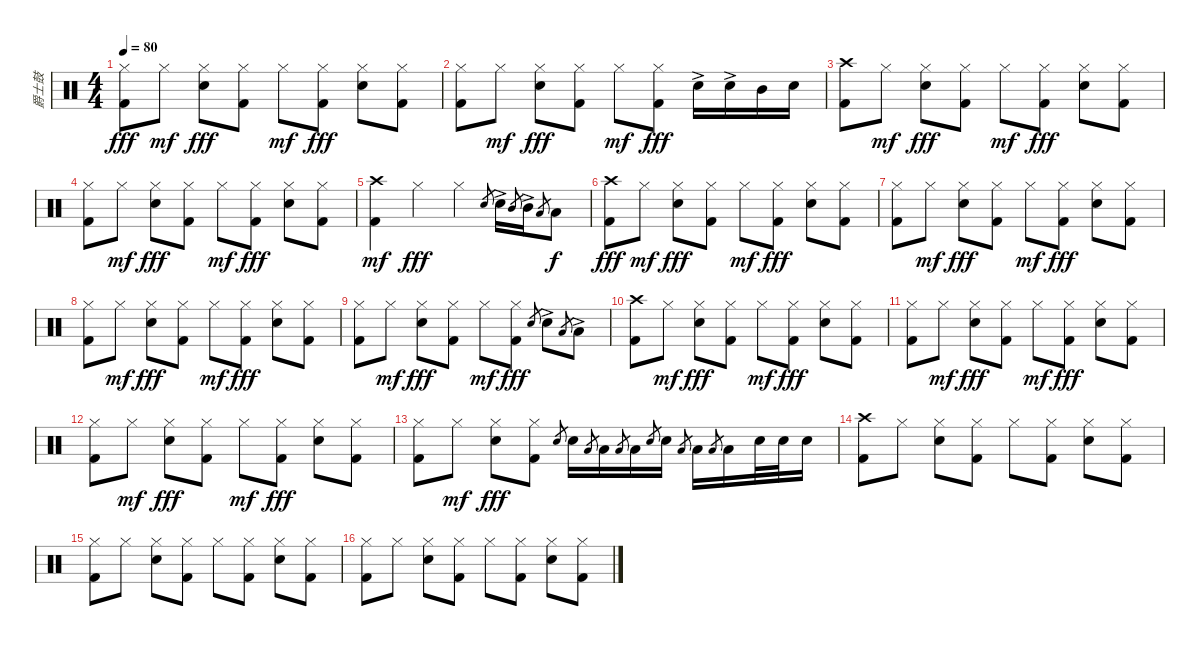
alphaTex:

\track ("爵士鼓" "爵士鼓") {instrument percussion}
\staff {score}
\articulation defaults
\ts (4 4)
\tempo 80
\clef neutral
\ks c
("Hi-Hat (closed)" "Kick (hit) 2").8{dy fff} "Hi-Hat (closed)".8{dy mf} ("Hi-Hat (closed)" "Electric Snare (hit)").8{dy fff} ("Hi-Hat (closed)" "Kick (hit) 2").8 "Hi-Hat (closed)".8{dy mf} ("Hi-Hat (closed)" "Kick (hit) 2").8{dy fff} ("Hi-Hat (closed)" "Electric Snare (hit)").8 ("Hi-Hat (closed)" "Kick (hit) 2").8 |
("Hi-Hat (closed)" "Kick (hit) 2").8 "Hi-Hat (closed)".8{dy mf} ("Hi-Hat (closed)" "Electric Snare (hit)").8{dy fff} ("Hi-Hat (closed)" "Kick (hit) 2").8 "Hi-Hat (closed)".8{dy mf} ("Hi-Hat (closed)" "Kick (hit) 2").8{dy fff} "Electric Snare (hit)"{ac}.16 "Electric Snare (hit)"{ac}.16 "Mid Tom (hit)".16 "Electric Snare (hit)".16 |
("Crash high (hit)" "Kick (hit) 2").8 "Hi-Hat (closed)".8{dy mf} ("Hi-Hat (closed)" "Electric Snare (hit)").8{dy fff} ("Hi-Hat (closed)" "Kick (hit) 2").8 "Hi-Hat (closed)".8{dy mf} ("Hi-Hat (closed)" "Kick (hit) 2").8{dy fff} ("Hi-Hat (closed)" "Electric Snare (hit)").8 ("Hi-Hat (closed)" "Kick (hit) 2").8 |
("Hi-Hat (closed)" "Kick (hit) 2").8 "Hi-Hat (closed)".8{dy mf} ("Hi-Hat (closed)" "Electric Snare (hit)").8{dy fff} ("Hi-Hat (closed)" "Kick (hit) 2").8 "Hi-Hat (closed)".8{dy mf} ("Hi-Hat (closed)" "Kick (hit) 2").8{dy fff} ("Hi-Hat (closed)" "Electric Snare (hit)").8 ("Hi-Hat (closed)" "Kick (hit) 2").8 |
("Crash high (hit)" "Kick (hit) 2").4{dy mf} "Hi-Hat (closed)".4{dy fff} "Hi-Hat (closed)".4 "Electric Snare (hit)".8{gr} "Electric Snare (hit)"{ac}.16 "Mid Tom (hit)".8{gr} "Mid Tom (hit)"{ac}.16 "Low Tom (hit)".8{gr} "Low Tom (hit)".8{dy f} |
("Crash high (hit)" "Kick (hit) 2").8{dy fff} "Hi-Hat (closed)".8{dy mf} ("Hi-Hat (closed)" "Electric Snare (hit)").8{dy fff} ("Hi-Hat (closed)" "Kick (hit) 2").8 "Hi-Hat (closed)".8{dy mf} ("Hi-Hat (closed)" "Kick (hit) 2").8{dy fff} ("Hi-Hat (closed)" "Electric Snare (hit)").8 ("Hi-Hat (closed)" "Kick (hit) 2").8 |
("Hi-Hat (closed)" "Kick (hit) 2").8 "Hi-Hat (closed)".8{dy mf} ("Hi-Hat (closed)" "Electric Snare (hit)").8{dy fff} ("Hi-Hat (closed)" "Kick (hit) 2").8 "Hi-Hat (closed)".8{dy mf} ("Hi-Hat (closed)" "Kick (hit) 2").8{dy fff} ("Hi-Hat (closed)" "Electric Snare (hit)").8 ("Hi-Hat (closed)" "Kick (hit) 2").8 |
("Hi-Hat (closed)" "Kick (hit) 2").8 "Hi-Hat (closed)".8{dy mf} ("Hi-Hat (closed)" "Electric Snare (hit)").8{dy fff} ("Hi-Hat (closed)" "Kick (hit) 2").8 "Hi-Hat (closed)".8{dy mf} ("Hi-Hat (closed)" "Kick (hit) 2").8{dy fff} ("Hi-Hat (closed)" "Electric Snare (hit)").8 ("Hi-Hat (closed)" "Kick (hit) 2").8 |
("Hi-Hat (closed)" "Kick (hit) 2").8 "Hi-Hat (closed)".8{dy mf} ("Hi-Hat (closed)" "Electric Snare (hit)").8{dy fff} ("Hi-Hat (closed)" "Kick (hit) 2").8 "Hi-Hat (closed)".8{dy mf} ("Hi-Hat (closed)" "Kick (hit) 2").8{dy fff} "Electric Snare (hit)".8{gr} "Electric Snare (hit)"{ac}.8 "Low Tom (hit)".8{gr} "Low Tom (hit)"{ac}.8 |
("Crash high (hit)" "Kick (hit) 2").8 "Hi-Hat (closed)".8{dy mf} ("Hi-Hat (closed)" "Electric Snare (hit)").8{dy fff} ("Hi-Hat (closed)" "Kick (hit) 2").8 "Hi-Hat (closed)".8{dy mf} ("Hi-Hat (closed)" "Kick (hit) 2").8{dy fff} ("Hi-Hat (closed)" "Electric Snare (hit)").8 ("Hi-Hat (closed)" "Kick (hit) 2").8 |
("Hi-Hat (closed)" "Kick (hit) 2").8 "Hi-Hat (closed)".8{dy mf} ("Hi-Hat (closed)" "Electric Snare (hit)").8{dy fff} ("Hi-Hat (closed)" "Kick (hit) 2").8 "Hi-Hat (closed)".8{dy mf} ("Hi-Hat (closed)" "Kick (hit) 2").8{dy fff} ("Hi-Hat (closed)" "Electric Snare (hit)").8 ("Hi-Hat (closed)" "Kick (hit) 2").8 |
("Hi-Hat (closed)" "Kick (hit) 2").8 "Hi-Hat (closed)".8{dy mf} ("Hi-Hat (closed)" "Electric Snare (hit)").8{dy fff} ("Hi-Hat (closed)" "Kick (hit) 2").8 "Hi-Hat (closed)".8{dy mf} ("Hi-Hat (closed)" "Kick (hit) 2").8{dy fff} ("Hi-Hat (closed)" "Electric Snare (hit)").8 ("Hi-Hat (closed)" "Kick (hit) 2").8 |
("Hi-Hat (closed)" "Kick (hit) 2").8 "Hi-Hat (closed)".8{dy mf} ("Hi-Hat (closed)" "Electric Snare (hit)").8{dy fff} ("Hi-Hat (closed)" "Kick (hit) 2").8 "Electric Snare (hit)".8{gr} "Electric Snare (hit)".16 "Low Tom (hit)".8{gr} "Low Tom (hit)".16 "Low Tom (hit)".8{gr} "Low Tom (hit)".16 "Electric Snare (hit)".8{gr} "Electric Snare (hit)".16 "Low Tom (hit)".8{gr} "Low Tom (hit)".16 "Low Tom (hit)".8{gr} "Low Tom (hit)".16 "Electric Snare (hit)".32 "Electric Snare (hit)".32 "Electric Snare (hit)".16 |
("Crash high (hit)" "Kick (hit) 2").8{volume 16} "Hi-Hat (closed)".8 ("Hi-Hat (closed)" "Electric Snare (hit)").8 ("Hi-Hat (closed)" "Kick (hit) 2").8 "Hi-Hat (closed)".8 ("Hi-Hat (closed)" "Kick (hit) 2").8 ("Hi-Hat (closed)" "Electric Snare (hit)").8 ("Hi-Hat (closed)" "Kick (hit) 2").8 |
("Hi-Hat (closed)" "Kick (hit) 2").8 "Hi-Hat (closed)".8 ("Hi-Hat (closed)" "Electric Snare (hit)").8 ("Hi-Hat (closed)" "Kick (hit) 2").8 "Hi-Hat (closed)".8 ("Hi-Hat (closed)" "Kick (hit) 2").8 ("Hi-Hat (closed)" "Electric Snare (hit)").8 ("Hi-Hat (closed)" "Kick (hit) 2").8 |
("Hi-Hat (closed)" "Kick (hit) 2").8 "Hi-Hat (closed)".8 ("Hi-Hat (closed)" "Electric Snare (hit)").8 ("Hi-Hat (closed)" "Kick (hit) 2").8 "Hi-Hat (closed)".8 ("Hi-Hat (closed)" "Kick (hit) 2").8 ("Hi-Hat (closed)" "Electric Snare (hit)").8 ("Hi-Hat (closed)" "Kick (hit) 2").8
